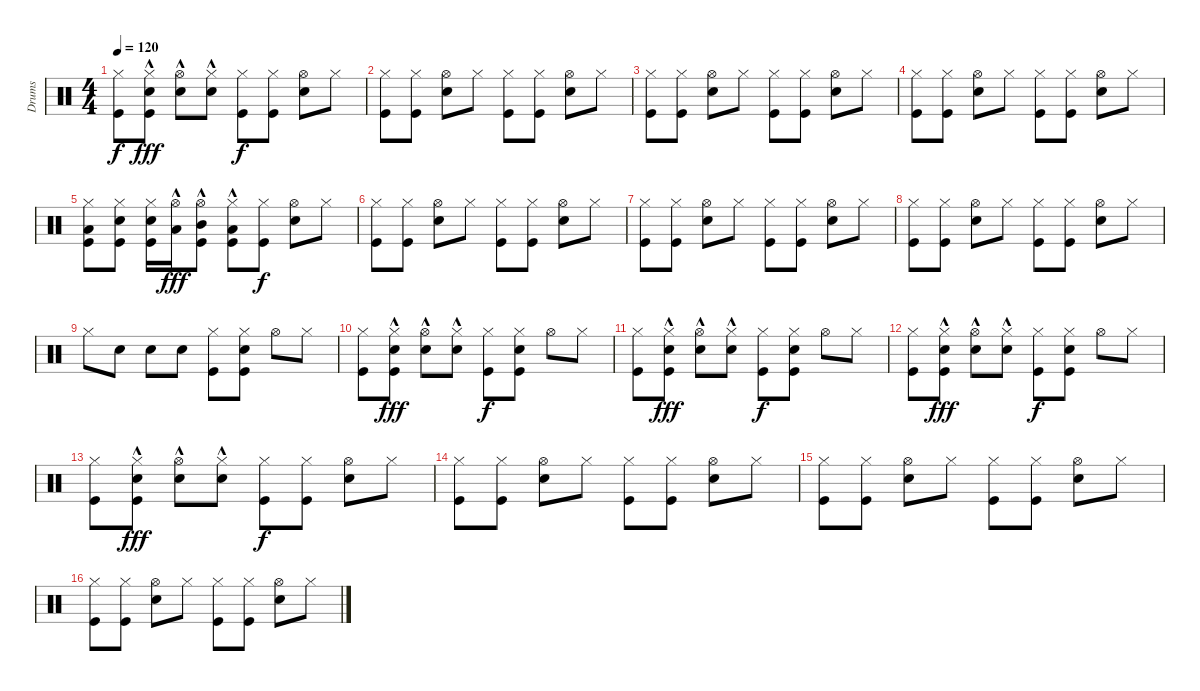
\track ("Drums" "Drums") {instrument percussion}
\staff {score}
\articulation defaults
\ts (4 4)
\tempo 120
\clef neutral
\ks c
("Hi-Hat (closed)" "Kick (hit)").8{dy f} ("Hi-Hat (closed)" "Electric Snare (hit)"{hac} "Kick (hit)").8{dy fff} ("Hi-Hat (open)" "Electric Snare (hit)"{hac}).8 ("Hi-Hat (closed)" "Electric Snare (hit)"{hac}).8 ("Hi-Hat (closed)" "Kick (hit)").8{dy f} ("Hi-Hat (closed)" "Kick (hit)").8 ("Hi-Hat (open)" "Electric Snare (hit)").8 "Hi-Hat (closed)".8 |
("Hi-Hat (closed)" "Kick (hit)").8 ("Hi-Hat (closed)" "Kick (hit)").8 ("Hi-Hat (open)" "Electric Snare (hit)").8 "Hi-Hat (closed)".8 ("Hi-Hat (closed)" "Kick (hit)").8 ("Hi-Hat (closed)" "Kick (hit)").8 ("Hi-Hat (open)" "Electric Snare (hit)").8 "Hi-Hat (closed)".8 |
("Hi-Hat (closed)" "Kick (hit)").8 ("Hi-Hat (closed)" "Kick (hit)").8 ("Hi-Hat (open)" "Electric Snare (hit)").8 "Hi-Hat (closed)".8 ("Hi-Hat (closed)" "Kick (hit)").8 ("Hi-Hat (closed)" "Kick (hit)").8 ("Hi-Hat (open)" "Electric Snare (hit)").8 "Hi-Hat (closed)".8 |
("Hi-Hat (closed)" "Kick (hit)").8 ("Hi-Hat (closed)" "Kick (hit)").8 ("Hi-Hat (open)" "Electric Snare (hit)").8 "Hi-Hat (closed)".8 ("Hi-Hat (closed)" "Kick (hit)").8 ("Hi-Hat (closed)" "Kick (hit)").8 ("Hi-Hat (open)" "Electric Snare (hit)").8 "Hi-Hat (closed)".8 |
("Hi-Hat (closed)" "Low Floor Tom (hit)" "Kick (hit)").8 ("Hi-Hat (closed)" "Electric Snare (hit)" "Kick (hit)").8 ("Hi-Hat (closed)" "Electric Snare (hit)" "Kick (hit)").16 ("Hi-Hat (open)" "Low Tom (hit)"{hac}).16{dy fff} ("Hi-Hat (open)" "Mid Tom (hit)"{hac} "Kick (hit)").8 ("Hi-Hat (closed)" "Low Floor Tom (hit)"{hac} "Kick (hit)").8 ("Hi-Hat (closed)" "Kick (hit)").8{dy f} ("Hi-Hat (open)" "Electric Snare (hit)").8 "Hi-Hat (closed)".8 |
("Hi-Hat (closed)" "Kick (hit)").8 ("Hi-Hat (closed)" "Kick (hit)").8 ("Hi-Hat (open)" "Electric Snare (hit)").8 "Hi-Hat (closed)".8 ("Hi-Hat (closed)" "Kick (hit)").8 ("Hi-Hat (closed)" "Kick (hit)").8 ("Hi-Hat (open)" "Electric Snare (hit)").8 "Hi-Hat (closed)".8 |
("Hi-Hat (closed)" "Kick (hit)").8 ("Hi-Hat (closed)" "Kick (hit)").8 ("Hi-Hat (open)" "Electric Snare (hit)").8 "Hi-Hat (closed)".8 ("Hi-Hat (closed)" "Kick (hit)").8 ("Hi-Hat (closed)" "Kick (hit)").8 ("Hi-Hat (open)" "Electric Snare (hit)").8 "Hi-Hat (closed)".8 |
("Hi-Hat (closed)" "Kick (hit)").8 ("Hi-Hat (closed)" "Kick (hit)").8 ("Hi-Hat (open)" "Electric Snare (hit)").8 "Hi-Hat (closed)".8 ("Hi-Hat (closed)" "Kick (hit)").8 ("Hi-Hat (closed)" "Kick (hit)").8 ("Hi-Hat (open)" "Electric Snare (hit)").8 "Hi-Hat (closed)".8 |
"Hi-Hat (closed)".8 "Electric Snare (hit)".8 "Electric Snare (hit)".8 "Electric Snare (hit)".8 ("Hi-Hat (closed)" "Kick (hit)").8 ("Hi-Hat (closed)" "Electric Snare (hit)" "Kick (hit)").8 "Hi-Hat (open)".8 "Hi-Hat (closed)".8 |
("Hi-Hat (closed)" "Kick (hit)").8 ("Hi-Hat (closed)" "Electric Snare (hit)"{hac} "Kick (hit)").8{dy fff} ("Hi-Hat (open)" "Electric Snare (hit)"{hac}).8 ("Hi-Hat (closed)" "Electric Snare (hit)"{hac}).8 ("Hi-Hat (closed)" "Kick (hit)").8{dy f} ("Hi-Hat (closed)" "Electric Snare (hit)" "Kick (hit)").8 "Hi-Hat (open)".8 "Hi-Hat (closed)".8 |
("Hi-Hat (closed)" "Kick (hit)").8 ("Hi-Hat (closed)" "Electric Snare (hit)"{hac} "Kick (hit)").8{dy fff} ("Hi-Hat (open)" "Electric Snare (hit)"{hac}).8 ("Hi-Hat (closed)" "Electric Snare (hit)"{hac}).8 ("Hi-Hat (closed)" "Kick (hit)").8{dy f} ("Hi-Hat (closed)" "Electric Snare (hit)" "Kick (hit)").8 "Hi-Hat (open)".8 "Hi-Hat (closed)".8 |
("Hi-Hat (closed)" "Kick (hit)").8 ("Hi-Hat (closed)" "Electric Snare (hit)"{hac} "Kick (hit)").8{dy fff} ("Hi-Hat (open)" "Electric Snare (hit)"{hac}).8 ("Hi-Hat (closed)" "Electric Snare (hit)"{hac}).8 ("Hi-Hat (closed)" "Kick (hit)").8{dy f} ("Hi-Hat (closed)" "Electric Snare (hit)" "Kick (hit)").8 "Hi-Hat (open)".8 "Hi-Hat (closed)".8 |
("Hi-Hat (closed)" "Kick (hit)").8 ("Hi-Hat (closed)" "Electric Snare (hit)"{hac} "Kick (hit)").8{dy fff} ("Hi-Hat (open)" "Electric Snare (hit)"{hac}).8 ("Hi-Hat (closed)" "Electric Snare (hit)"{hac}).8 ("Hi-Hat (closed)" "Kick (hit)").8{dy f} ("Hi-Hat (closed)" "Kick (hit)").8 ("Hi-Hat (open)" "Electric Snare (hit)").8 "Hi-Hat (closed)".8 |
("Hi-Hat (closed)" "Kick (hit)").8 ("Hi-Hat (closed)" "Kick (hit)").8 ("Hi-Hat (open)" "Electric Snare (hit)").8 "Hi-Hat (closed)".8 ("Hi-Hat (closed)" "Kick (hit)").8 ("Hi-Hat (closed)" "Kick (hit)").8 ("Hi-Hat (open)" "Electric Snare (hit)").8 "Hi-Hat (closed)".8 |
("Hi-Hat (closed)" "Kick (hit)").8 ("Hi-Hat (closed)" "Kick (hit)").8 ("Hi-Hat (open)" "Electric Snare (hit)").8 "Hi-Hat (closed)".8 ("Hi-Hat (closed)" "Kick (hit)").8 ("Hi-Hat (closed)" "Kick (hit)").8 ("Hi-Hat (open)" "Electric Snare (hit)").8 "Hi-Hat (closed)".8 |
("Hi-Hat (closed)" "Kick (hit)").8 ("Hi-Hat (closed)" "Kick (hit)").8 ("Hi-Hat (open)" "Electric Snare (hit)").8 "Hi-Hat (closed)".8 ("Hi-Hat (closed)" "Kick (hit)").8 ("Hi-Hat (closed)" "Kick (hit)").8 ("Hi-Hat (open)" "Electric Snare (hit)").8 "Hi-Hat (closed)".8
